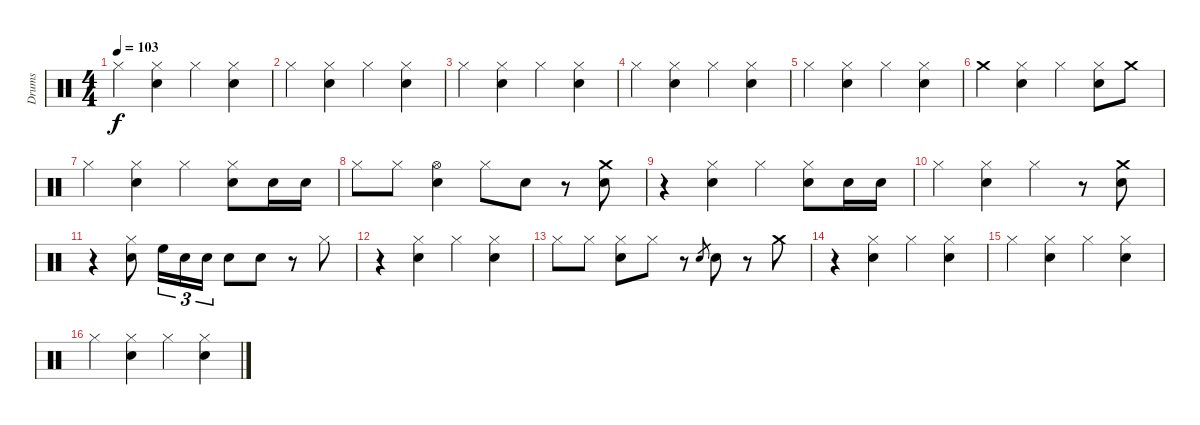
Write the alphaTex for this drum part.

\track ("Drums" "Drums") {instrument percussion}
\staff {score}
\articulation defaults
\ts (4 4)
\tempo 103
\clef neutral
\ks c "Hi-Hat (closed)".4{dy f}
("Hi-Hat (closed)" "Electric Snare (hit)").4 "Hi-Hat (closed)".4 ("Hi-Hat (closed)" "Electric Snare (hit)").4 |
"Hi-Hat (closed)".4 ("Hi-Hat (closed)" "Electric Snare (hit)").4 "Hi-Hat (closed)".4 ("Hi-Hat (closed)" "Electric Snare (hit)").4 |
"Hi-Hat (closed)".4 ("Hi-Hat (closed)" "Electric Snare (hit)").4 "Hi-Hat (closed)".4 ("Hi-Hat (closed)" "Electric Snare (hit)").4 |
"Hi-Hat (closed)".4 ("Hi-Hat (closed)" "Electric Snare (hit)").4 "Hi-Hat (closed)".4 ("Hi-Hat (closed)" "Electric Snare (hit)").4 |
"Hi-Hat (closed)".4 ("Hi-Hat (closed)" "Electric Snare (hit)").4 "Hi-Hat (closed)".4 ("Hi-Hat (closed)" "Electric Snare (hit)").4 |
"Crash medium (hit)".4 ("Hi-Hat (closed)" "Electric Snare (hit)").4 "Hi-Hat (closed)".4 ("Hi-Hat (closed)" "Electric Snare (hit)").8 "Crash medium (hit)".8 |
"Hi-Hat (closed)".4 ("Hi-Hat (closed)" "Electric Snare (hit)").4 "Hi-Hat (closed)".4 ("Hi-Hat (closed)" "Electric Snare (hit)").8 "Electric Snare (hit)".16 "Electric Snare (hit)".16 |
"Hi-Hat (closed)".8 "Hi-Hat (closed)".8 ("Hi-Hat (open)" "Electric Snare (hit)").4 "Hi-Hat (closed)".8 "Electric Snare (hit)".8 r.8 ("Electric Snare (hit)" "Crash medium (hit)").8 |
r.4 ("Hi-Hat (closed)" "Electric Snare (hit)").4 "Hi-Hat (closed)".4 ("Hi-Hat (closed)" "Electric Snare (hit)").8 "Electric Snare (hit)".16 "Electric Snare (hit)".16 |
"Hi-Hat (closed)".4 ("Hi-Hat (closed)" "Electric Snare (hit)").4 "Hi-Hat (closed)".4 r.8 ("Crash medium (hit)" "Electric Snare (hit)").8 |
r.4 ("Hi-Hat (closed)" "Electric Snare (hit)").8 "High Floor Tom (hit)".16{tu (3 2)} "Electric Snare (hit)".16{tu (3 2)} "Electric Snare (hit)".16{tu (3 2)} "Electric Snare (hit)".8 "Electric Snare (hit)".8 r.8 "Hi-Hat (closed)".8 |
r.4 ("Hi-Hat (closed)" "Electric Snare (hit)").4 "Hi-Hat (closed)".4 ("Hi-Hat (closed)" "Electric Snare (hit)").4 |
"Hi-Hat (closed)".8 "Hi-Hat (closed)".8 ("Hi-Hat (closed)" "Electric Snare (hit)").8 "Hi-Hat (closed)".8 r.8 "Electric Snare (hit)".8{gr} "Electric Snare (hit)".8 r.8 "Crash medium (hit)".8 |
r.4 ("Hi-Hat (closed)" "Electric Snare (hit)").4 "Hi-Hat (closed)".4 ("Hi-Hat (closed)" "Electric Snare (hit)").4 |
"Hi-Hat (closed)".4 ("Hi-Hat (closed)" "Electric Snare (hit)").4 "Hi-Hat (closed)".4 ("Hi-Hat (closed)" "Electric Snare (hit)").4 |
"Hi-Hat (closed)".4 ("Hi-Hat (closed)" "Electric Snare (hit)").4 "Hi-Hat (closed)".4 ("Hi-Hat (closed)" "Electric Snare (hit)").4
